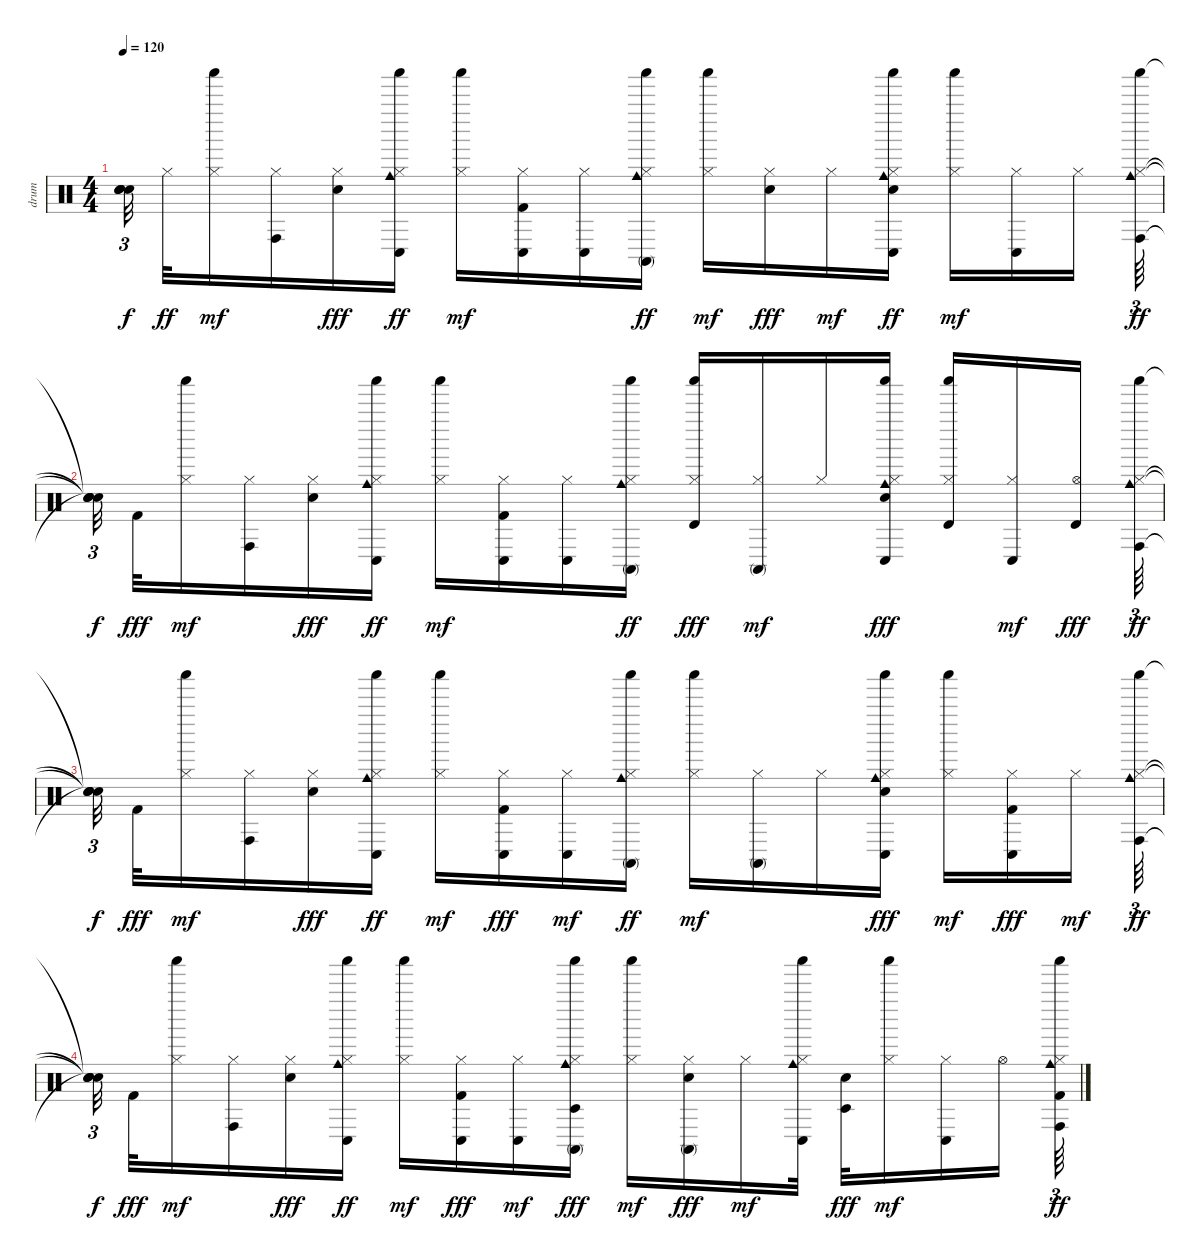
\track ("drum" "drum") {instrument percussion}
\staff {score}
\articulation defaults
\ts (4 4)
\tempo 120
\clef neutral
\ks c
("Snare (hit)"{t} "Snare (hit)"{t} "Snare (hit)"{t} "Snare (hit)"{t}).32{tu (3 2) dy f beam splitsecondary} "Hi-Hat (closed)".32{dy ff} ("Shaker (hit)" "Hi-Hat (closed)").16{dy mf} ("Conga high (hit)" "Hi-Hat (closed)").16 ("Hi-Hat (closed)" "Electric Snare (hit)").16{dy fff} ("Cowbell medium (hit)" "Conga low (hit)" "Shaker (hit)" "Hi-Hat (closed)").16{dy ff} ("Shaker (hit)" "Hi-Hat (closed)").16{dy mf} ("Conga low (hit)" "Kick (hit) 2" "Hi-Hat (closed)").16 ("Conga low (hit)" "Hi-Hat (closed)").16 ("Conga high (mute)" "Shaker (hit)" "Cowbell medium (hit)" "Hi-Hat (closed)").16{dy ff} ("Shaker (hit)" "Hi-Hat (closed)").16{dy mf} ("Hi-Hat (closed)" "Electric Snare (hit)").16{dy fff} "Hi-Hat (closed)".16{dy mf} ("Conga low (hit)" "Shaker (hit)" "Cowbell medium (hit)" "Electric Snare (hit)" "Hi-Hat (closed)").16{dy ff} ("Shaker (hit)" "Hi-Hat (closed)").16{dy mf} ("Conga low (hit)" "Hi-Hat (closed)").16 "Hi-Hat (closed)".16{beam splitsecondary} ("Conga high (hit)" "Shaker (hit)" "Cowbell medium (hit)" "Hi-Hat (closed)").64{tu (3 2) dy ff} |
("Snare (hit)"{t} "Snare (hit)"{t} "Snare (hit)"{t} "Snare (hit)"{t}).32{tu (3 2) dy f beam splitsecondary} "Kick (hit) 2".32{dy fff} ("Shaker (hit)" "Hi-Hat (closed)").16{dy mf} ("Conga high (hit)" "Hi-Hat (closed)").16 ("Hi-Hat (closed)" "Electric Snare (hit)").16{dy fff} ("Conga low (hit)" "Cowbell medium (hit)" "Shaker (hit)" "Hi-Hat (closed)").16{dy ff} ("Shaker (hit)" "Hi-Hat (closed)").16{dy mf} ("Conga low (hit)" "Kick (hit) 2" "Hi-Hat (closed)").16 ("Conga low (hit)" "Hi-Hat (closed)").16 ("Conga high (mute)" "Cowbell medium (hit)" "Shaker (hit)" "Hi-Hat (closed)").16{dy ff} ("Shaker (hit)" "Hi-Hat (closed)" "Timbale high (hit)").16{dy fff} ("Conga high (mute)" "Hi-Hat (closed)").16{dy mf} "Hi-Hat (closed)".16 ("Conga low (hit)" "Cowbell medium (hit)" "Shaker (hit)" "Hi-Hat (closed)" "Electric Snare (hit)").16{dy fff} ("Shaker (hit)" "Hi-Hat (closed)" "Timbale high (hit)").16 ("Conga low (hit)" "Hi-Hat (closed)").16{dy mf} ("Hi-Hat (open)" "Timbale high (hit)").16{dy fff beam splitsecondary} ("Conga high (hit)" "Shaker (hit)" "Cowbell medium (hit)" "Hi-Hat (closed)").64{tu (3 2) dy ff} |
("Snare (hit)"{t} "Snare (hit)"{t} "Snare (hit)"{t} "Snare (hit)"{t}).32{tu (3 2) dy f beam splitsecondary} "Kick (hit) 2".32{dy fff} ("Shaker (hit)" "Hi-Hat (closed)").16{dy mf} ("Conga high (hit)" "Hi-Hat (closed)").16 ("Hi-Hat (closed)" "Electric Snare (hit)").16{dy fff} ("Conga low (hit)" "Cowbell medium (hit)" "Shaker (hit)" "Hi-Hat (closed)").16{dy ff} ("Shaker (hit)" "Hi-Hat (closed)").16{dy mf} ("Conga low (hit)" "Hi-Hat (closed)" "Kick (hit) 2").16{dy fff} ("Conga low (hit)" "Hi-Hat (closed)").16{dy mf} ("Conga high (mute)" "Cowbell medium (hit)" "Shaker (hit)" "Hi-Hat (closed)").16{dy ff} ("Shaker (hit)" "Hi-Hat (closed)").16{dy mf} ("Conga high (mute)" "Hi-Hat (closed)").16 "Hi-Hat (closed)".16 ("Conga low (hit)" "Cowbell medium (hit)" "Shaker (hit)" "Hi-Hat (closed)" "Electric Snare (hit)").16{dy fff} ("Shaker (hit)" "Hi-Hat (closed)").16{dy mf} ("Conga low (hit)" "Hi-Hat (closed)" "Kick (hit) 2").16{dy fff} "Hi-Hat (closed)".16{dy mf beam splitsecondary} ("Conga high (hit)" "Cowbell medium (hit)" "Shaker (hit)" "Hi-Hat (closed)").64{tu (3 2) dy ff} |
("Snare (hit)"{t} "Snare (hit)"{t} "Snare (hit)"{t} "Snare (hit)"{t}).32{tu (3 2) dy f beam splitsecondary} "Kick (hit) 2".32{dy fff} ("Shaker (hit)" "Hi-Hat (closed)").16{dy mf} ("Conga high (hit)" "Hi-Hat (closed)").16 ("Hi-Hat (closed)" "Electric Snare (hit)").16{dy fff} ("Conga low (hit)" "Cowbell medium (hit)" "Shaker (hit)" "Hi-Hat (closed)").16{dy ff} ("Shaker (hit)" "Hi-Hat (closed)").16{dy mf} ("Conga low (hit)" "Hi-Hat (closed)" "Kick (hit) 2").16{dy fff} ("Conga low (hit)" "Hi-Hat (closed)").16{dy mf} ("Conga high (mute)" "Cowbell medium (hit)" "Shaker (hit)" "Hi-Hat (closed)" "Timbale low (hit)").16{dy fff} ("Hi-Hat (closed)" "Shaker (hit)").16{dy mf} ("Conga high (mute)" "Hi-Hat (closed)" "Electric Snare (hit)").16{dy fff} "Hi-Hat (closed)".16{dy mf} ("Conga low (hit)" "Hi-Hat (closed)" "Shaker (hit)" "Cowbell medium (hit)").32 ("Electric Snare (hit)" "Timbale low (hit)").32{dy fff} ("Hi-Hat (closed)" "Shaker (hit)").16{dy mf} ("Conga low (hit)" "Hi-Hat (closed)").16 "Hi-Hat (open)".16{beam splitsecondary} ("Conga high (hit)" "Shaker (hit)" "Cowbell medium (hit)" "Kick (hit) 2" "Hi-Hat (closed)").64{tu (3 2) dy ff}
